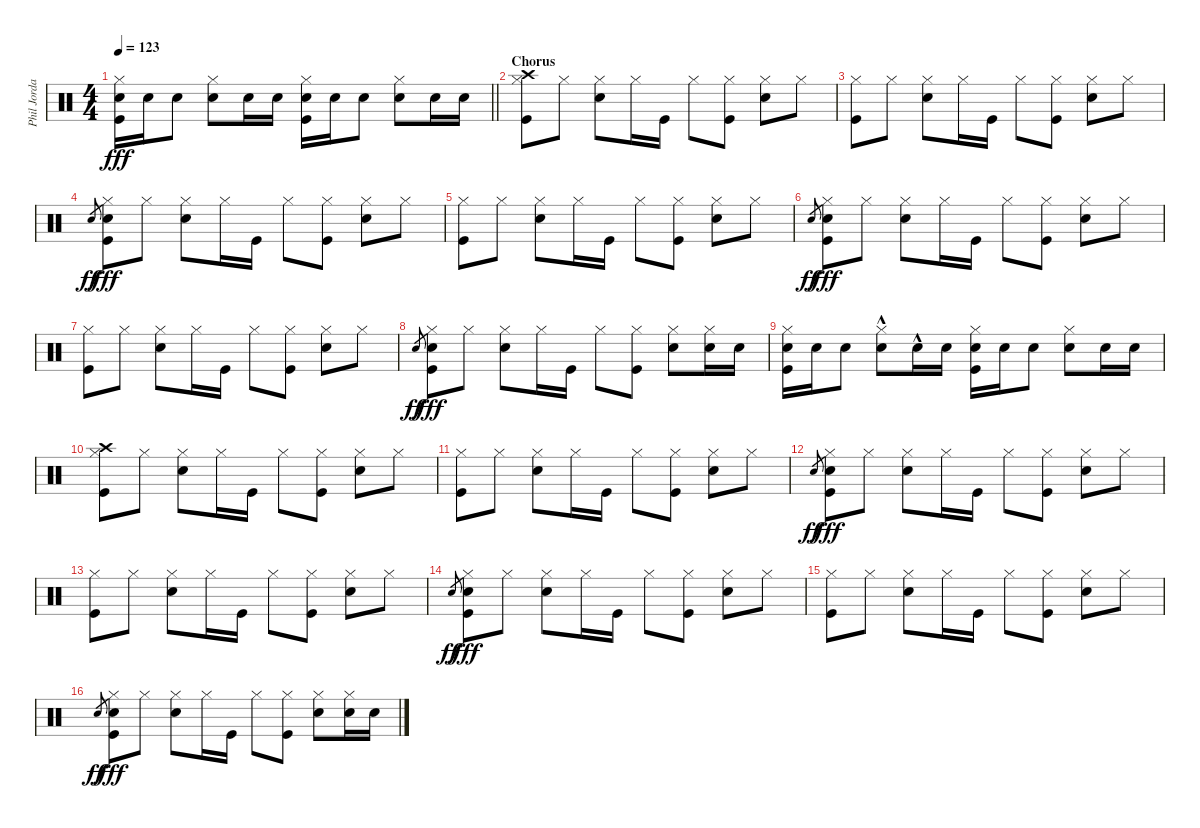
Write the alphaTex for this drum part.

\track ("Phil Jordan" "Phil Jorda") {instrument percussion}
\staff {score}
\articulation defaults
\ts (4 4)
\tempo 123
\clef neutral
\barLineRight lightlight
\ks c
("Hi-Hat (closed)" "Snare (hit) 2" "Kick (hit)").16{dy fff} "Snare (hit) 2".16 "Snare (hit) 2".8 ("Hi-Hat (closed)" "Snare (hit) 2").8 "Snare (hit) 2".16 "Snare (hit) 2".16 ("Hi-Hat (closed)" "Snare (hit) 2" "Kick (hit)").16 "Snare (hit) 2".16 "Snare (hit) 2".8 ("Hi-Hat (closed)" "Snare (hit) 2").8 "Snare (hit) 2".16 "Snare (hit) 2".16 |
\section ("" "Chorus")
("Crash high (hit)" "Hi-Hat (closed)" "Kick (hit)").8 "Hi-Hat (closed)".8 ("Hi-Hat (closed)" "Snare (hit) 2").8 "Hi-Hat (closed)".16 "Kick (hit)".16 "Hi-Hat (closed)".8 ("Hi-Hat (closed)" "Kick (hit)").8 ("Hi-Hat (closed)" "Snare (hit) 2").8 "Hi-Hat (closed)".8 |
("Hi-Hat (closed)" "Kick (hit)").8 "Hi-Hat (closed)".8 ("Hi-Hat (closed)" "Snare (hit) 2").8 "Hi-Hat (closed)".16 "Kick (hit)".16 "Hi-Hat (closed)".8 ("Hi-Hat (closed)" "Kick (hit)").8 ("Hi-Hat (closed)" "Snare (hit) 2").8 "Hi-Hat (closed)".8 |
"Snare (hit) 2".8{gr dy ff} ("Hi-Hat (closed)" "Snare (hit) 2" "Kick (hit)").8{dy fff} "Hi-Hat (closed)".8 ("Hi-Hat (closed)" "Snare (hit) 2").8 "Hi-Hat (closed)".16 "Kick (hit)".16 "Hi-Hat (closed)".8 ("Hi-Hat (closed)" "Kick (hit)").8 ("Hi-Hat (closed)" "Snare (hit) 2").8 "Hi-Hat (closed)".8 |
("Hi-Hat (closed)" "Kick (hit)").8 "Hi-Hat (closed)".8 ("Hi-Hat (closed)" "Snare (hit) 2").8 "Hi-Hat (closed)".16 "Kick (hit)".16 "Hi-Hat (closed)".8 ("Hi-Hat (closed)" "Kick (hit)").8 ("Hi-Hat (closed)" "Snare (hit) 2").8 "Hi-Hat (closed)".8 |
"Snare (hit) 2".8{gr dy ff} ("Hi-Hat (closed)" "Snare (hit) 2" "Kick (hit)").8{dy fff} "Hi-Hat (closed)".8 ("Hi-Hat (closed)" "Snare (hit) 2").8 "Hi-Hat (closed)".16 "Kick (hit)".16 "Hi-Hat (closed)".8 ("Hi-Hat (closed)" "Kick (hit)").8 ("Hi-Hat (closed)" "Snare (hit) 2").8 "Hi-Hat (closed)".8 |
("Hi-Hat (closed)" "Kick (hit)").8 "Hi-Hat (closed)".8 ("Hi-Hat (closed)" "Snare (hit) 2").8 "Hi-Hat (closed)".16 "Kick (hit)".16 "Hi-Hat (closed)".8 ("Hi-Hat (closed)" "Kick (hit)").8 ("Hi-Hat (closed)" "Snare (hit) 2").8 "Hi-Hat (closed)".8 |
"Snare (hit) 2".8{gr dy ff} ("Hi-Hat (closed)" "Snare (hit) 2" "Kick (hit)").8{dy fff} "Hi-Hat (closed)".8 ("Hi-Hat (closed)" "Snare (hit) 2").8 "Hi-Hat (closed)".16 "Kick (hit)".16 "Hi-Hat (closed)".8 ("Hi-Hat (closed)" "Kick (hit)").8 ("Hi-Hat (closed)" "Snare (hit) 2").8 ("Hi-Hat (closed)" "Snare (hit) 2").16 "Snare (hit) 2".16 |
("Hi-Hat (closed)" "Snare (hit) 2" "Kick (hit)").16 "Snare (hit) 2".16 "Snare (hit) 2".8 ("Hi-Hat (closed)" "Snare (hit) 2"{hac}).8 "Snare (hit) 2"{hac}.16 "Snare (hit) 2".16 ("Hi-Hat (closed)" "Snare (hit) 2" "Kick (hit)").16 "Snare (hit) 2".16 "Snare (hit) 2".8 ("Hi-Hat (closed)" "Snare (hit) 2").8 "Snare (hit) 2".16 "Snare (hit) 2".16 |
("Crash high (hit)" "Hi-Hat (closed)" "Kick (hit)").8 "Hi-Hat (closed)".8 ("Hi-Hat (closed)" "Snare (hit) 2").8 "Hi-Hat (closed)".16 "Kick (hit)".16 "Hi-Hat (closed)".8 ("Hi-Hat (closed)" "Kick (hit)").8 ("Hi-Hat (closed)" "Snare (hit) 2").8 "Hi-Hat (closed)".8 |
("Hi-Hat (closed)" "Kick (hit)").8 "Hi-Hat (closed)".8 ("Hi-Hat (closed)" "Snare (hit) 2").8 "Hi-Hat (closed)".16 "Kick (hit)".16 "Hi-Hat (closed)".8 ("Hi-Hat (closed)" "Kick (hit)").8 ("Hi-Hat (closed)" "Snare (hit) 2").8 "Hi-Hat (closed)".8 |
"Snare (hit) 2".8{gr dy ff} ("Hi-Hat (closed)" "Snare (hit) 2" "Kick (hit)").8{dy fff} "Hi-Hat (closed)".8 ("Hi-Hat (closed)" "Snare (hit) 2").8 "Hi-Hat (closed)".16 "Kick (hit)".16 "Hi-Hat (closed)".8 ("Hi-Hat (closed)" "Kick (hit)").8 ("Hi-Hat (closed)" "Snare (hit) 2").8 "Hi-Hat (closed)".8 |
("Hi-Hat (closed)" "Kick (hit)").8 "Hi-Hat (closed)".8 ("Hi-Hat (closed)" "Snare (hit) 2").8 "Hi-Hat (closed)".16 "Kick (hit)".16 "Hi-Hat (closed)".8 ("Hi-Hat (closed)" "Kick (hit)").8 ("Hi-Hat (closed)" "Snare (hit) 2").8 "Hi-Hat (closed)".8 |
"Snare (hit) 2".8{gr dy ff} ("Hi-Hat (closed)" "Snare (hit) 2" "Kick (hit)").8{dy fff} "Hi-Hat (closed)".8 ("Hi-Hat (closed)" "Snare (hit) 2").8 "Hi-Hat (closed)".16 "Kick (hit)".16 "Hi-Hat (closed)".8 ("Hi-Hat (closed)" "Kick (hit)").8 ("Hi-Hat (closed)" "Snare (hit) 2").8 "Hi-Hat (closed)".8 |
("Hi-Hat (closed)" "Kick (hit)").8 "Hi-Hat (closed)".8 ("Hi-Hat (closed)" "Snare (hit) 2").8 "Hi-Hat (closed)".16 "Kick (hit)".16 "Hi-Hat (closed)".8 ("Hi-Hat (closed)" "Kick (hit)").8 ("Hi-Hat (closed)" "Snare (hit) 2").8 "Hi-Hat (closed)".8 |
"Snare (hit) 2".8{gr dy ff} ("Hi-Hat (closed)" "Snare (hit) 2" "Kick (hit)").8{dy fff} "Hi-Hat (closed)".8 ("Hi-Hat (closed)" "Snare (hit) 2").8 "Hi-Hat (closed)".16 "Kick (hit)".16 "Hi-Hat (closed)".8 ("Hi-Hat (closed)" "Kick (hit)").8 ("Hi-Hat (closed)" "Snare (hit) 2").8 ("Hi-Hat (closed)" "Snare (hit) 2").16 "Snare (hit) 2".16
